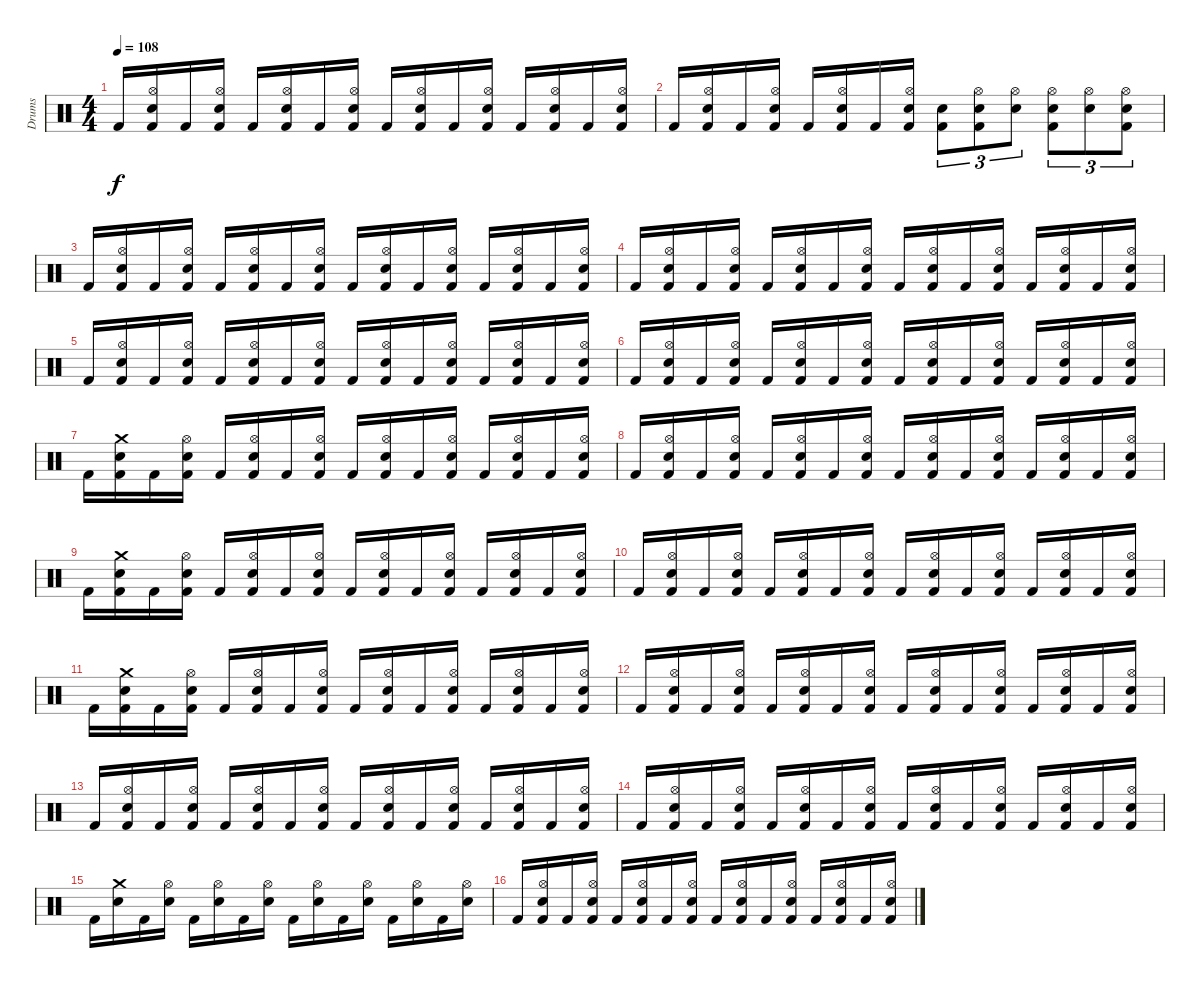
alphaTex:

\track ("Drums" "Drums") {instrument percussion}
\staff {score}
\articulation defaults
\ts (4 4)
\tempo 108
\clef neutral
\ks c "Kick (hit) 2".16{dy f}
("Hi-Hat (open)" "Snare (hit) 2" "Kick (hit) 2").16 "Kick (hit) 2".16 ("Hi-Hat (open)" "Snare (hit) 2" "Kick (hit) 2").16 "Kick (hit) 2".16 ("Hi-Hat (open)" "Snare (hit) 2" "Kick (hit) 2").16 "Kick (hit) 2".16 ("Hi-Hat (open)" "Snare (hit) 2" "Kick (hit) 2").16 "Kick (hit) 2".16 ("Hi-Hat (open)" "Snare (hit) 2" "Kick (hit) 2").16 "Kick (hit) 2".16 ("Hi-Hat (open)" "Snare (hit) 2" "Kick (hit) 2").16 "Kick (hit) 2".16 ("Hi-Hat (open)" "Snare (hit) 2" "Kick (hit) 2").16 "Kick (hit) 2".16 ("Hi-Hat (open)" "Snare (hit) 2" "Kick (hit) 2").16 |
"Kick (hit) 2".16 ("Hi-Hat (open)" "Snare (hit) 2" "Kick (hit) 2").16 "Kick (hit) 2".16 ("Hi-Hat (open)" "Snare (hit) 2" "Kick (hit) 2").16 "Kick (hit) 2".16 ("Hi-Hat (open)" "Snare (hit) 2" "Kick (hit) 2").16 "Kick (hit) 2".16 ("Hi-Hat (open)" "Snare (hit) 2" "Kick (hit) 2").16 ("Snare (hit) 2" "Kick (hit) 2").8{tu (3 2)} ("Hi-Hat (open)" "Snare (hit) 2" "Kick (hit) 2").8{tu (3 2)} ("Hi-Hat (open)" "Snare (hit) 2").8{tu (3 2)} ("Hi-Hat (open)" "Snare (hit) 2" "Kick (hit) 2").8{tu (3 2)} ("Hi-Hat (open)" "Snare (hit) 2").8{tu (3 2)} ("Hi-Hat (open)" "Snare (hit) 2" "Kick (hit) 2").8{tu (3 2)} |
"Kick (hit) 2".16 ("Hi-Hat (open)" "Snare (hit) 2" "Kick (hit) 2").16 "Kick (hit) 2".16 ("Hi-Hat (open)" "Snare (hit) 2" "Kick (hit) 2").16 "Kick (hit) 2".16 ("Hi-Hat (open)" "Snare (hit) 2" "Kick (hit) 2").16 "Kick (hit) 2".16 ("Hi-Hat (open)" "Snare (hit) 2" "Kick (hit) 2").16 "Kick (hit) 2".16 ("Hi-Hat (open)" "Snare (hit) 2" "Kick (hit) 2").16 "Kick (hit) 2".16 ("Hi-Hat (open)" "Snare (hit) 2" "Kick (hit) 2").16 "Kick (hit) 2".16 ("Hi-Hat (open)" "Snare (hit) 2" "Kick (hit) 2").16 "Kick (hit) 2".16 ("Hi-Hat (open)" "Snare (hit) 2" "Kick (hit) 2").16 |
"Kick (hit) 2".16 ("Hi-Hat (open)" "Snare (hit) 2" "Kick (hit) 2").16 "Kick (hit) 2".16 ("Hi-Hat (open)" "Snare (hit) 2" "Kick (hit) 2").16 "Kick (hit) 2".16 ("Hi-Hat (open)" "Snare (hit) 2" "Kick (hit) 2").16 "Kick (hit) 2".16 ("Hi-Hat (open)" "Snare (hit) 2" "Kick (hit) 2").16 "Kick (hit) 2".16 ("Hi-Hat (open)" "Snare (hit) 2" "Kick (hit) 2").16 "Kick (hit) 2".16 ("Hi-Hat (open)" "Snare (hit) 2" "Kick (hit) 2").16 "Kick (hit) 2".16 ("Hi-Hat (open)" "Snare (hit) 2" "Kick (hit) 2").16 "Kick (hit) 2".16 ("Hi-Hat (open)" "Snare (hit) 2" "Kick (hit) 2").16 |
"Kick (hit) 2".16 ("Hi-Hat (open)" "Snare (hit) 2" "Kick (hit) 2").16 "Kick (hit) 2".16 ("Hi-Hat (open)" "Snare (hit) 2" "Kick (hit) 2").16 "Kick (hit) 2".16 ("Hi-Hat (open)" "Snare (hit) 2" "Kick (hit) 2").16 "Kick (hit) 2".16 ("Hi-Hat (open)" "Snare (hit) 2" "Kick (hit) 2").16 "Kick (hit) 2".16 ("Hi-Hat (open)" "Snare (hit) 2" "Kick (hit) 2").16 "Kick (hit) 2".16 ("Hi-Hat (open)" "Snare (hit) 2" "Kick (hit) 2").16 "Kick (hit) 2".16 ("Hi-Hat (open)" "Snare (hit) 2" "Kick (hit) 2").16 "Kick (hit) 2".16 ("Hi-Hat (open)" "Snare (hit) 2" "Kick (hit) 2").16 |
"Kick (hit) 2".16 ("Hi-Hat (open)" "Snare (hit) 2" "Kick (hit) 2").16 "Kick (hit) 2".16 ("Hi-Hat (open)" "Snare (hit) 2" "Kick (hit) 2").16 "Kick (hit) 2".16 ("Hi-Hat (open)" "Snare (hit) 2" "Kick (hit) 2").16 "Kick (hit) 2".16 ("Hi-Hat (open)" "Snare (hit) 2" "Kick (hit) 2").16 "Kick (hit) 2".16 ("Hi-Hat (open)" "Snare (hit) 2" "Kick (hit) 2").16 "Kick (hit) 2".16 ("Hi-Hat (open)" "Snare (hit) 2" "Kick (hit) 2").16 "Kick (hit) 2".16 ("Hi-Hat (open)" "Snare (hit) 2" "Kick (hit) 2").16 "Kick (hit) 2".16 ("Hi-Hat (open)" "Snare (hit) 2" "Kick (hit) 2").16 |
"Kick (hit) 2".16 ("Crash medium (hit)" "Snare (hit) 2" "Kick (hit) 2").16 "Kick (hit) 2".16 ("Hi-Hat (open)" "Snare (hit) 2" "Kick (hit) 2").16 "Kick (hit) 2".16 ("Hi-Hat (open)" "Snare (hit) 2" "Kick (hit) 2").16 "Kick (hit) 2".16 ("Hi-Hat (open)" "Snare (hit) 2" "Kick (hit) 2").16 "Kick (hit) 2".16 ("Hi-Hat (open)" "Snare (hit) 2" "Kick (hit) 2").16 "Kick (hit) 2".16 ("Hi-Hat (open)" "Snare (hit) 2" "Kick (hit) 2").16 "Kick (hit) 2".16 ("Hi-Hat (open)" "Snare (hit) 2" "Kick (hit) 2").16 "Kick (hit) 2".16 ("Hi-Hat (open)" "Snare (hit) 2" "Kick (hit) 2").16 |
"Kick (hit) 2".16 ("Hi-Hat (open)" "Snare (hit) 2" "Kick (hit) 2").16 "Kick (hit) 2".16 ("Hi-Hat (open)" "Snare (hit) 2" "Kick (hit) 2").16 "Kick (hit) 2".16 ("Hi-Hat (open)" "Snare (hit) 2" "Kick (hit) 2").16 "Kick (hit) 2".16 ("Hi-Hat (open)" "Snare (hit) 2" "Kick (hit) 2").16 "Kick (hit) 2".16 ("Hi-Hat (open)" "Snare (hit) 2" "Kick (hit) 2").16 "Kick (hit) 2".16 ("Hi-Hat (open)" "Snare (hit) 2" "Kick (hit) 2").16 "Kick (hit) 2".16 ("Hi-Hat (open)" "Snare (hit) 2" "Kick (hit) 2").16 "Kick (hit) 2".16 ("Hi-Hat (open)" "Snare (hit) 2" "Kick (hit) 2").16 |
"Kick (hit) 2".16 ("Crash medium (hit)" "Snare (hit) 2" "Kick (hit) 2").16 "Kick (hit) 2".16 ("Hi-Hat (open)" "Snare (hit) 2" "Kick (hit) 2").16 "Kick (hit) 2".16 ("Hi-Hat (open)" "Snare (hit) 2" "Kick (hit) 2").16 "Kick (hit) 2".16 ("Hi-Hat (open)" "Snare (hit) 2" "Kick (hit) 2").16 "Kick (hit) 2".16 ("Hi-Hat (open)" "Snare (hit) 2" "Kick (hit) 2").16 "Kick (hit) 2".16 ("Hi-Hat (open)" "Snare (hit) 2" "Kick (hit) 2").16 "Kick (hit) 2".16 ("Hi-Hat (open)" "Snare (hit) 2" "Kick (hit) 2").16 "Kick (hit) 2".16 ("Hi-Hat (open)" "Snare (hit) 2" "Kick (hit) 2").16 |
"Kick (hit) 2".16 ("Hi-Hat (open)" "Snare (hit) 2" "Kick (hit) 2").16 "Kick (hit) 2".16 ("Hi-Hat (open)" "Snare (hit) 2" "Kick (hit) 2").16 "Kick (hit) 2".16 ("Hi-Hat (open)" "Snare (hit) 2" "Kick (hit) 2").16 "Kick (hit) 2".16 ("Hi-Hat (open)" "Snare (hit) 2" "Kick (hit) 2").16 "Kick (hit) 2".16 ("Hi-Hat (open)" "Snare (hit) 2" "Kick (hit) 2").16 "Kick (hit) 2".16 ("Hi-Hat (open)" "Snare (hit) 2" "Kick (hit) 2").16 "Kick (hit) 2".16 ("Hi-Hat (open)" "Snare (hit) 2" "Kick (hit) 2").16 "Kick (hit) 2".16 ("Hi-Hat (open)" "Snare (hit) 2" "Kick (hit) 2").16 |
"Kick (hit) 2".16 ("Crash medium (hit)" "Snare (hit) 2" "Kick (hit) 2").16 "Kick (hit) 2".16 ("Hi-Hat (open)" "Snare (hit) 2" "Kick (hit) 2").16 "Kick (hit) 2".16 ("Hi-Hat (open)" "Snare (hit) 2" "Kick (hit) 2").16 "Kick (hit) 2".16 ("Hi-Hat (open)" "Snare (hit) 2" "Kick (hit) 2").16 "Kick (hit) 2".16 ("Hi-Hat (open)" "Snare (hit) 2" "Kick (hit) 2").16 "Kick (hit) 2".16 ("Hi-Hat (open)" "Snare (hit) 2" "Kick (hit) 2").16 "Kick (hit) 2".16 ("Hi-Hat (open)" "Snare (hit) 2" "Kick (hit) 2").16 "Kick (hit) 2".16 ("Hi-Hat (open)" "Snare (hit) 2" "Kick (hit) 2").16 |
"Kick (hit) 2".16 ("Hi-Hat (open)" "Snare (hit) 2" "Kick (hit) 2").16 "Kick (hit) 2".16 ("Hi-Hat (open)" "Snare (hit) 2" "Kick (hit) 2").16 "Kick (hit) 2".16 ("Hi-Hat (open)" "Snare (hit) 2" "Kick (hit) 2").16 "Kick (hit) 2".16 ("Hi-Hat (open)" "Snare (hit) 2" "Kick (hit) 2").16 "Kick (hit) 2".16 ("Hi-Hat (open)" "Snare (hit) 2" "Kick (hit) 2").16 "Kick (hit) 2".16 ("Hi-Hat (open)" "Snare (hit) 2" "Kick (hit) 2").16 "Kick (hit) 2".16 ("Hi-Hat (open)" "Snare (hit) 2" "Kick (hit) 2").16 "Kick (hit) 2".16 ("Hi-Hat (open)" "Snare (hit) 2" "Kick (hit) 2").16 |
"Kick (hit) 2".16 ("Hi-Hat (open)" "Snare (hit) 2" "Kick (hit) 2").16 "Kick (hit) 2".16 ("Hi-Hat (open)" "Snare (hit) 2" "Kick (hit) 2").16 "Kick (hit) 2".16 ("Hi-Hat (open)" "Snare (hit) 2" "Kick (hit) 2").16 "Kick (hit) 2".16 ("Hi-Hat (open)" "Snare (hit) 2" "Kick (hit) 2").16 "Kick (hit) 2".16 ("Hi-Hat (open)" "Snare (hit) 2" "Kick (hit) 2").16 "Kick (hit) 2".16 ("Hi-Hat (open)" "Snare (hit) 2" "Kick (hit) 2").16 "Kick (hit) 2".16 ("Hi-Hat (open)" "Snare (hit) 2" "Kick (hit) 2").16 "Kick (hit) 2".16 ("Hi-Hat (open)" "Snare (hit) 2" "Kick (hit) 2").16 |
"Kick (hit) 2".16 ("Hi-Hat (open)" "Snare (hit) 2" "Kick (hit) 2").16 "Kick (hit) 2".16 ("Hi-Hat (open)" "Snare (hit) 2" "Kick (hit) 2").16 "Kick (hit) 2".16 ("Hi-Hat (open)" "Snare (hit) 2" "Kick (hit) 2").16 "Kick (hit) 2".16 ("Hi-Hat (open)" "Snare (hit) 2" "Kick (hit) 2").16 "Kick (hit) 2".16 ("Hi-Hat (open)" "Snare (hit) 2" "Kick (hit) 2").16 "Kick (hit) 2".16 ("Hi-Hat (open)" "Snare (hit) 2" "Kick (hit) 2").16 "Kick (hit) 2".16 ("Hi-Hat (open)" "Snare (hit) 2" "Kick (hit) 2").16 "Kick (hit) 2".16 ("Hi-Hat (open)" "Snare (hit) 2" "Kick (hit) 2").16 |
"Kick (hit) 2".16 ("Crash medium (hit)" "Snare (hit) 2").16 "Kick (hit) 2".16 ("Hi-Hat (open)" "Snare (hit) 2").16 "Kick (hit) 2".16 ("Hi-Hat (open)" "Snare (hit) 2").16 "Kick (hit) 2".16 ("Hi-Hat (open)" "Snare (hit) 2").16 "Kick (hit) 2".16 ("Hi-Hat (open)" "Snare (hit) 2").16 "Kick (hit) 2".16 ("Hi-Hat (open)" "Snare (hit) 2").16 "Kick (hit) 2".16 ("Hi-Hat (open)" "Snare (hit) 2").16 "Kick (hit) 2".16 ("Hi-Hat (open)" "Snare (hit) 2").16 |
"Kick (hit) 2".16 ("Hi-Hat (open)" "Snare (hit) 2" "Kick (hit) 2").16 "Kick (hit) 2".16 ("Hi-Hat (open)" "Snare (hit) 2" "Kick (hit) 2").16 "Kick (hit) 2".16 ("Hi-Hat (open)" "Snare (hit) 2" "Kick (hit) 2").16 "Kick (hit) 2".16 ("Hi-Hat (open)" "Snare (hit) 2" "Kick (hit) 2").16 "Kick (hit) 2".16 ("Hi-Hat (open)" "Snare (hit) 2" "Kick (hit) 2").16 "Kick (hit) 2".16 ("Hi-Hat (open)" "Snare (hit) 2" "Kick (hit) 2").16 "Kick (hit) 2".16 ("Hi-Hat (open)" "Snare (hit) 2" "Kick (hit) 2").16 "Kick (hit) 2".16 ("Hi-Hat (open)" "Snare (hit) 2" "Kick (hit) 2").16
